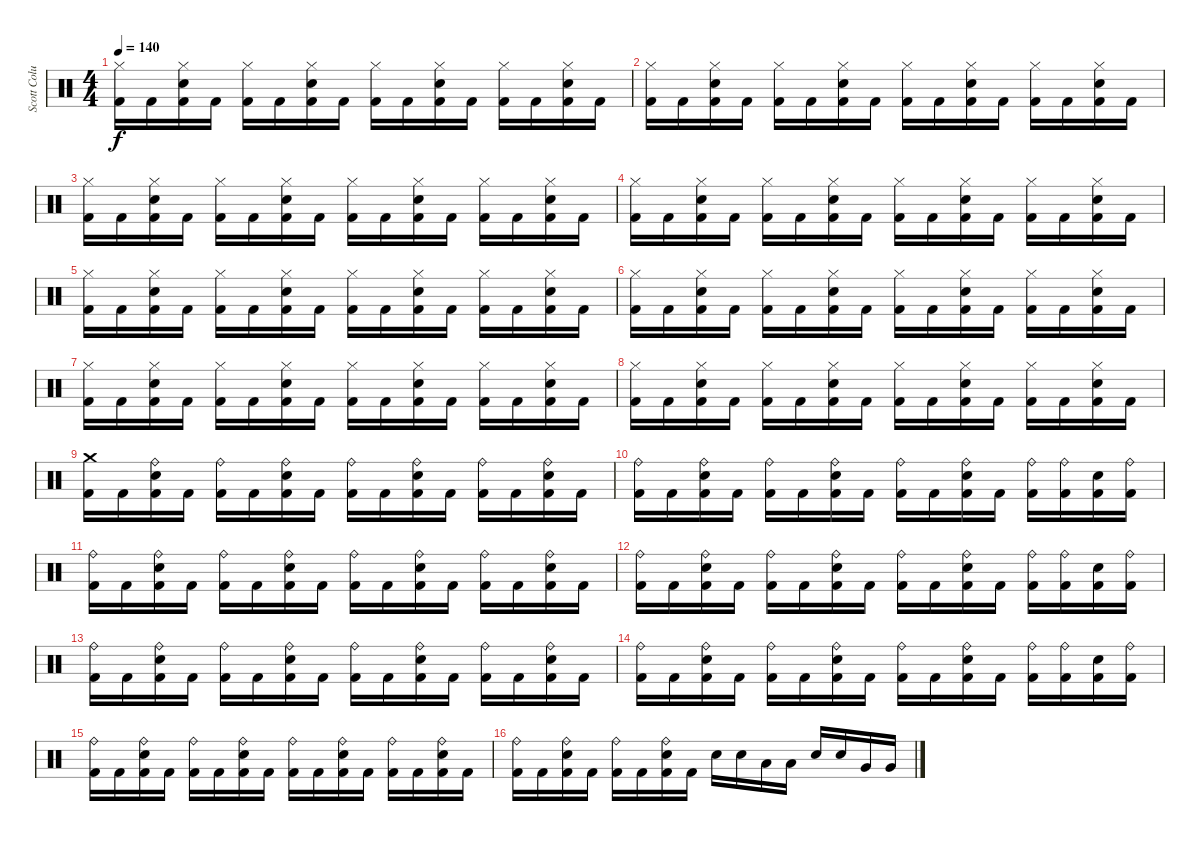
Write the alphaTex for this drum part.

\track ("Scott Columbus(Drums)" "Scott Colu") {instrument percussion}
\staff {score}
\articulation defaults
\ts (4 4)
\tempo 140
\clef neutral
\ks c
("Hi-Hat (closed)" "Kick (hit) 2").16{dy f} "Kick (hit) 2".16 ("Hi-Hat (closed)" "Snare (hit) 2" "Kick (hit) 2").16 "Kick (hit) 2".16 ("Hi-Hat (closed)" "Kick (hit) 2").16 "Kick (hit) 2".16 ("Hi-Hat (closed)" "Snare (hit) 2" "Kick (hit) 2").16 "Kick (hit) 2".16 ("Hi-Hat (closed)" "Kick (hit) 2").16 "Kick (hit) 2".16 ("Hi-Hat (closed)" "Snare (hit) 2" "Kick (hit) 2").16 "Kick (hit) 2".16 ("Hi-Hat (closed)" "Kick (hit) 2").16 "Kick (hit) 2".16 ("Hi-Hat (closed)" "Snare (hit) 2" "Kick (hit) 2").16 "Kick (hit) 2".16 |
("Hi-Hat (closed)" "Kick (hit) 2").16 "Kick (hit) 2".16 ("Hi-Hat (closed)" "Snare (hit) 2" "Kick (hit) 2").16 "Kick (hit) 2".16 ("Hi-Hat (closed)" "Kick (hit) 2").16 "Kick (hit) 2".16 ("Hi-Hat (closed)" "Snare (hit) 2" "Kick (hit) 2").16 "Kick (hit) 2".16 ("Hi-Hat (closed)" "Kick (hit) 2").16 "Kick (hit) 2".16 ("Hi-Hat (closed)" "Snare (hit) 2" "Kick (hit) 2").16 "Kick (hit) 2".16 ("Hi-Hat (closed)" "Kick (hit) 2").16 "Kick (hit) 2".16 ("Hi-Hat (closed)" "Snare (hit) 2" "Kick (hit) 2").16 "Kick (hit) 2".16 |
("Hi-Hat (closed)" "Kick (hit) 2").16 "Kick (hit) 2".16 ("Hi-Hat (closed)" "Snare (hit) 2" "Kick (hit) 2").16 "Kick (hit) 2".16 ("Hi-Hat (closed)" "Kick (hit) 2").16 "Kick (hit) 2".16 ("Hi-Hat (closed)" "Snare (hit) 2" "Kick (hit) 2").16 "Kick (hit) 2".16 ("Hi-Hat (closed)" "Kick (hit) 2").16 "Kick (hit) 2".16 ("Hi-Hat (closed)" "Snare (hit) 2" "Kick (hit) 2").16 "Kick (hit) 2".16 ("Hi-Hat (closed)" "Kick (hit) 2").16 "Kick (hit) 2".16 ("Hi-Hat (closed)" "Snare (hit) 2" "Kick (hit) 2").16 "Kick (hit) 2".16 |
("Hi-Hat (closed)" "Kick (hit) 2").16 "Kick (hit) 2".16 ("Hi-Hat (closed)" "Snare (hit) 2" "Kick (hit) 2").16 "Kick (hit) 2".16 ("Hi-Hat (closed)" "Kick (hit) 2").16 "Kick (hit) 2".16 ("Hi-Hat (closed)" "Snare (hit) 2" "Kick (hit) 2").16 "Kick (hit) 2".16 ("Hi-Hat (closed)" "Kick (hit) 2").16 "Kick (hit) 2".16 ("Hi-Hat (closed)" "Snare (hit) 2" "Kick (hit) 2").16 "Kick (hit) 2".16 ("Hi-Hat (closed)" "Kick (hit) 2").16 "Kick (hit) 2".16 ("Hi-Hat (closed)" "Snare (hit) 2" "Kick (hit) 2").16 "Kick (hit) 2".16 |
("Hi-Hat (closed)" "Kick (hit) 2").16 "Kick (hit) 2".16 ("Hi-Hat (closed)" "Snare (hit) 2" "Kick (hit) 2").16 "Kick (hit) 2".16 ("Hi-Hat (closed)" "Kick (hit) 2").16 "Kick (hit) 2".16 ("Hi-Hat (closed)" "Snare (hit) 2" "Kick (hit) 2").16 "Kick (hit) 2".16 ("Hi-Hat (closed)" "Kick (hit) 2").16 "Kick (hit) 2".16 ("Hi-Hat (closed)" "Snare (hit) 2" "Kick (hit) 2").16 "Kick (hit) 2".16 ("Hi-Hat (closed)" "Kick (hit) 2").16 "Kick (hit) 2".16 ("Hi-Hat (closed)" "Snare (hit) 2" "Kick (hit) 2").16 "Kick (hit) 2".16 |
("Hi-Hat (closed)" "Kick (hit) 2").16 "Kick (hit) 2".16 ("Hi-Hat (closed)" "Snare (hit) 2" "Kick (hit) 2").16 "Kick (hit) 2".16 ("Hi-Hat (closed)" "Kick (hit) 2").16 "Kick (hit) 2".16 ("Hi-Hat (closed)" "Snare (hit) 2" "Kick (hit) 2").16 "Kick (hit) 2".16 ("Hi-Hat (closed)" "Kick (hit) 2").16 "Kick (hit) 2".16 ("Hi-Hat (closed)" "Snare (hit) 2" "Kick (hit) 2").16 "Kick (hit) 2".16 ("Hi-Hat (closed)" "Kick (hit) 2").16 "Kick (hit) 2".16 ("Hi-Hat (closed)" "Snare (hit) 2" "Kick (hit) 2").16 "Kick (hit) 2".16 |
("Hi-Hat (closed)" "Kick (hit) 2").16 "Kick (hit) 2".16 ("Hi-Hat (closed)" "Snare (hit) 2" "Kick (hit) 2").16 "Kick (hit) 2".16 ("Hi-Hat (closed)" "Kick (hit) 2").16 "Kick (hit) 2".16 ("Hi-Hat (closed)" "Snare (hit) 2" "Kick (hit) 2").16 "Kick (hit) 2".16 ("Hi-Hat (closed)" "Kick (hit) 2").16 "Kick (hit) 2".16 ("Hi-Hat (closed)" "Snare (hit) 2" "Kick (hit) 2").16 "Kick (hit) 2".16 ("Hi-Hat (closed)" "Kick (hit) 2").16 "Kick (hit) 2".16 ("Hi-Hat (closed)" "Snare (hit) 2" "Kick (hit) 2").16 "Kick (hit) 2".16 |
("Hi-Hat (closed)" "Kick (hit) 2").16 "Kick (hit) 2".16 ("Hi-Hat (closed)" "Snare (hit) 2" "Kick (hit) 2").16 "Kick (hit) 2".16 ("Hi-Hat (closed)" "Kick (hit) 2").16 "Kick (hit) 2".16 ("Hi-Hat (closed)" "Snare (hit) 2" "Kick (hit) 2").16 "Kick (hit) 2".16 ("Hi-Hat (closed)" "Kick (hit) 2").16 "Kick (hit) 2".16 ("Hi-Hat (closed)" "Snare (hit) 2" "Kick (hit) 2").16 "Kick (hit) 2".16 ("Hi-Hat (closed)" "Kick (hit) 2").16 "Kick (hit) 2".16 ("Hi-Hat (closed)" "Snare (hit) 2" "Kick (hit) 2").16 "Kick (hit) 2".16 |
("Crash medium (hit)" "Kick (hit) 2").16 "Kick (hit) 2".16 ("Ride (bell)" "Snare (hit) 2" "Kick (hit) 2").16 "Kick (hit) 2".16 ("Ride (bell)" "Kick (hit) 2").16 "Kick (hit) 2".16 ("Ride (bell)" "Snare (hit) 2" "Kick (hit) 2").16 "Kick (hit) 2".16 ("Ride (bell)" "Kick (hit) 2").16 "Kick (hit) 2".16 ("Ride (bell)" "Snare (hit) 2" "Kick (hit) 2").16 "Kick (hit) 2".16 ("Ride (bell)" "Kick (hit) 2").16 "Kick (hit) 2".16 ("Ride (bell)" "Snare (hit) 2" "Kick (hit) 2").16 "Kick (hit) 2".16 |
("Ride (bell)" "Kick (hit) 2").16 "Kick (hit) 2".16 ("Ride (bell)" "Snare (hit) 2" "Kick (hit) 2").16 "Kick (hit) 2".16 ("Ride (bell)" "Kick (hit) 2").16 "Kick (hit) 2".16 ("Ride (bell)" "Snare (hit) 2" "Kick (hit) 2").16 "Kick (hit) 2".16 ("Ride (bell)" "Kick (hit) 2").16 "Kick (hit) 2".16 ("Ride (bell)" "Snare (hit) 2" "Kick (hit) 2").16 "Kick (hit) 2".16 ("Ride (bell)" "Kick (hit) 2").16 ("Ride (bell)" "Kick (hit) 2").16 ("Snare (hit) 2" "Kick (hit) 2").16 ("Ride (bell)" "Kick (hit) 2").16 |
("Ride (bell)" "Kick (hit) 2").16 "Kick (hit) 2".16 ("Ride (bell)" "Snare (hit) 2" "Kick (hit) 2").16 "Kick (hit) 2".16 ("Ride (bell)" "Kick (hit) 2").16 "Kick (hit) 2".16 ("Ride (bell)" "Snare (hit) 2" "Kick (hit) 2").16 "Kick (hit) 2".16 ("Ride (bell)" "Kick (hit) 2").16 "Kick (hit) 2".16 ("Ride (bell)" "Snare (hit) 2" "Kick (hit) 2").16 "Kick (hit) 2".16 ("Ride (bell)" "Kick (hit) 2").16 "Kick (hit) 2".16 ("Ride (bell)" "Snare (hit) 2" "Kick (hit) 2").16 "Kick (hit) 2".16 |
("Ride (bell)" "Kick (hit) 2").16 "Kick (hit) 2".16 ("Ride (bell)" "Snare (hit) 2" "Kick (hit) 2").16 "Kick (hit) 2".16 ("Ride (bell)" "Kick (hit) 2").16 "Kick (hit) 2".16 ("Ride (bell)" "Snare (hit) 2" "Kick (hit) 2").16 "Kick (hit) 2".16 ("Ride (bell)" "Kick (hit) 2").16 "Kick (hit) 2".16 ("Ride (bell)" "Snare (hit) 2" "Kick (hit) 2").16 "Kick (hit) 2".16 ("Ride (bell)" "Kick (hit) 2").16 ("Ride (bell)" "Kick (hit) 2").16 ("Snare (hit) 2" "Kick (hit) 2").16 ("Ride (bell)" "Kick (hit) 2").16 |
("Ride (bell)" "Kick (hit) 2").16 "Kick (hit) 2".16 ("Ride (bell)" "Snare (hit) 2" "Kick (hit) 2").16 "Kick (hit) 2".16 ("Ride (bell)" "Kick (hit) 2").16 "Kick (hit) 2".16 ("Ride (bell)" "Snare (hit) 2" "Kick (hit) 2").16 "Kick (hit) 2".16 ("Ride (bell)" "Kick (hit) 2").16 "Kick (hit) 2".16 ("Ride (bell)" "Snare (hit) 2" "Kick (hit) 2").16 "Kick (hit) 2".16 ("Ride (bell)" "Kick (hit) 2").16 "Kick (hit) 2".16 ("Ride (bell)" "Snare (hit) 2" "Kick (hit) 2").16 "Kick (hit) 2".16 |
("Ride (bell)" "Kick (hit) 2").16 "Kick (hit) 2".16 ("Ride (bell)" "Snare (hit) 2" "Kick (hit) 2").16 "Kick (hit) 2".16 ("Ride (bell)" "Kick (hit) 2").16 "Kick (hit) 2".16 ("Ride (bell)" "Snare (hit) 2" "Kick (hit) 2").16 "Kick (hit) 2".16 ("Ride (bell)" "Kick (hit) 2").16 "Kick (hit) 2".16 ("Ride (bell)" "Snare (hit) 2" "Kick (hit) 2").16 "Kick (hit) 2".16 ("Ride (bell)" "Kick (hit) 2").16 ("Ride (bell)" "Kick (hit) 2").16 ("Snare (hit) 2" "Kick (hit) 2").16 ("Ride (bell)" "Kick (hit) 2").16 |
("Ride (bell)" "Kick (hit) 2").16 "Kick (hit) 2".16 ("Ride (bell)" "Snare (hit) 2" "Kick (hit) 2").16 "Kick (hit) 2".16 ("Ride (bell)" "Kick (hit) 2").16 "Kick (hit) 2".16 ("Ride (bell)" "Snare (hit) 2" "Kick (hit) 2").16 "Kick (hit) 2".16 ("Ride (bell)" "Kick (hit) 2").16 "Kick (hit) 2".16 ("Ride (bell)" "Snare (hit) 2" "Kick (hit) 2").16 "Kick (hit) 2".16 ("Ride (bell)" "Kick (hit) 2").16 "Kick (hit) 2".16 ("Ride (bell)" "Snare (hit) 2" "Kick (hit) 2").16 "Kick (hit) 2".16 |
("Ride (bell)" "Kick (hit) 2").16 "Kick (hit) 2".16 ("Ride (bell)" "Snare (hit) 2" "Kick (hit) 2").16 "Kick (hit) 2".16 ("Ride (bell)" "Kick (hit) 2").16 "Kick (hit) 2".16 ("Ride (bell)" "Snare (hit) 2" "Kick (hit) 2").16 "Kick (hit) 2".16 "Snare (hit) 2".16 "Snare (hit) 2".16 "Low Tom (hit)".16 "Low Tom (hit)".16 "Snare (hit) 2".16 "Snare (hit) 2".16 "Very Low Tom (hit)".16 "Very Low Tom (hit)".16
